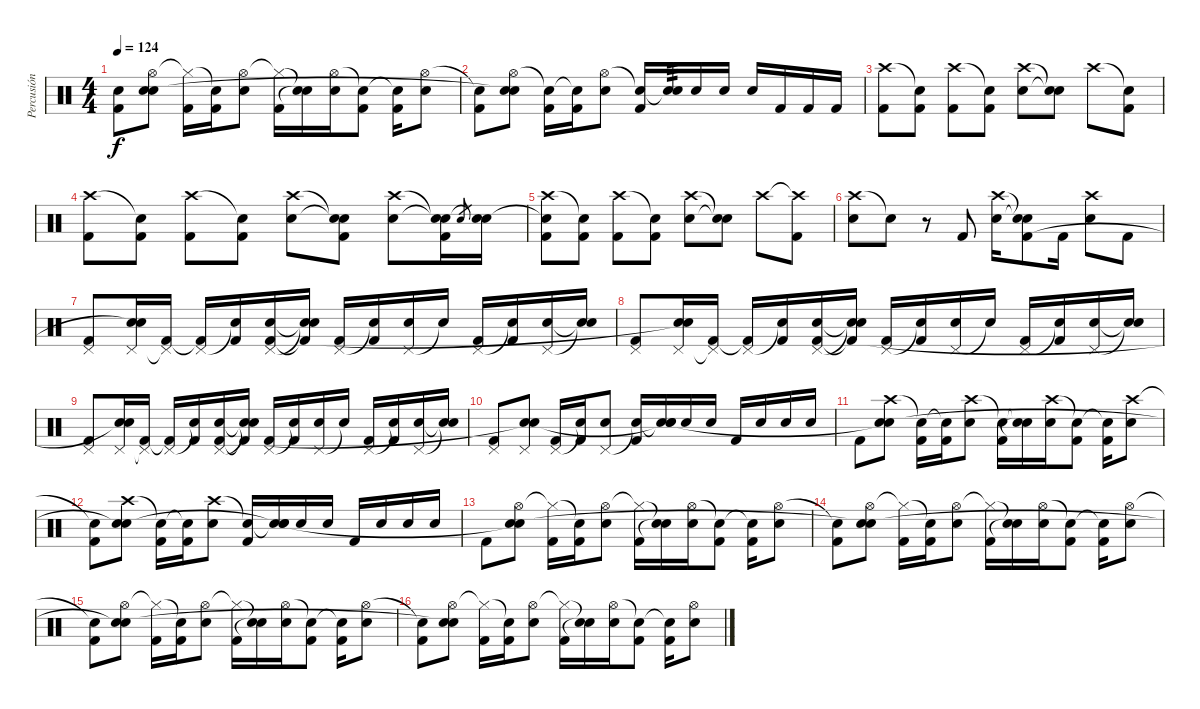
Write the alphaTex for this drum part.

\track ("Percusión" "Percusión") {instrument percussion}
\staff {score}
\articulation defaults
\ts (4 4)
\tempo 124
\clef neutral
\ks c
("Snare (hit)"{t} "Kick (hit) 2").8{dy f} ("Hi-Hat (open)" "Snare (hit) 2" "Snare (hit)"{t}).8 ("Hi-Hat (closed)"{t} "Kick (hit) 2").16 ("Snare (hit)"{t} "Kick (hit) 2").16 ("Hi-Hat (open)" "Snare (hit) 2").8 ("Hi-Hat (closed)"{t} "Kick (hit) 2").16 ("Snare (hit)"{t} "Snare (hit)"{t}).16 ("Hi-Hat (open)" "Snare (hit) 2").16 ("Snare (hit)"{t} "Kick (hit) 2").8 ("Snare (hit)"{t} "Kick (hit) 2").16 ("Hi-Hat (open)" "Snare (hit) 2").8 |
("Snare (hit)"{t} "Kick (hit) 2").8 ("Hi-Hat (open)" "Snare (hit) 2" "Snare (hit)"{t}).8 ("Snare (hit)"{t} "Kick (hit) 2").16 ("Snare (hit)"{t} "Kick (hit) 2").16 ("Hi-Hat (open)" "Snare (hit) 2").8 ("Snare (hit)"{t} "Kick (hit) 2").16 ("Snare (hit)"{t} "Snare (hit) 2").16{tp 3} "Snare (hit) 2".16 "Snare (hit) 2".16 "Snare (hit) 2".16 "Kick (hit) 2".16 "Kick (hit) 2".16 "Kick (hit) 2".16 |
("Crash high (hit)" "Kick (hit) 2").8 ("Snare (hit)"{t} "Kick (hit) 2").8 ("Crash high (hit)" "Kick (hit) 2").8 ("Snare (hit)"{t} "Kick (hit) 2").8 ("Crash high (hit)" "Snare (hit) 2").8 ("Snare (hit)"{t} "Snare (hit)"{t}).8 "Crash high (hit)".8 ("Snare (hit)"{t} "Kick (hit) 2").8 |
("Crash high (hit)" "Kick (hit) 2").8 ("Snare (hit)"{t} "Kick (hit) 2").8 ("Crash high (hit)" "Kick (hit) 2").8 ("Snare (hit)"{t} "Kick (hit) 2").8 ("Crash high (hit)" "Snare (hit) 2").8 ("Snare (hit)"{t} "Snare (hit)"{t} "Kick (hit) 2").8 ("Crash high (hit)" "Snare (hit) 2").8 ("Snare (hit)"{t} "Snare (hit) 2"{t} "Kick (hit) 2").16 "Snare (hit) 2".8{gr} ("Snare (hit) 2" "Snare (hit)"{t}).16 |
("Crash high (hit)" "Snare (hit) 2"{t} "Kick (hit) 2").8 ("Snare (hit)"{t} "Kick (hit) 2").8 ("Crash high (hit)" "Kick (hit) 2").8 ("Snare (hit)"{t} "Kick (hit) 2").8 ("Crash high (hit)" "Snare (hit) 2").8 ("Snare (hit)"{t} "Snare (hit)"{t}).8 "Crash high (hit)".8 ("Crash high (hit)"{t} "Kick (hit) 2").8 |
("Crash high (hit)" "Snare (hit) 2").8 "Snare (hit)"{t}.8 r.8 "Kick (hit) 2".8 ("Crash high (hit)" "Snare (hit) 2").16 ("Snare (hit)"{t} "Snare (hit)"{t} "Kick (hit) 2").8 "Kick (hit) 2".16 ("Crash high (hit)" "Snare (hit) 2").8 "Kick (hit) 2".8 |
("Pedal Hi-Hat (hit)" "Kick (hit) 2").8 ("Pedal Hi-Hat (hit)" "Snare (hit) 2" "Snare (hit)"{t}).16 ("Pedal Hi-Hat (hit)"{t} "Kick (hit) 2").16 ("Pedal Hi-Hat (hit)" "Kick (hit) 2"{t}).16 ("Snare (hit)"{t} "Kick (hit) 2").16 ("Pedal Hi-Hat (hit)" "Snare (hit) 2" "Kick (hit) 2").16 ("Snare (hit)"{t} "Snare (hit)"{t} "Kick (hit) 2"{t}).16 ("Pedal Hi-Hat (hit)" "Kick (hit) 2").16 ("Snare (hit)"{t} "Kick (hit) 2").16 ("Pedal Hi-Hat (hit)" "Snare (hit) 2").16 "Snare (hit)"{t}.16 ("Pedal Hi-Hat (hit)" "Kick (hit) 2").16 ("Snare (hit)"{t} "Kick (hit) 2").16 ("Pedal Hi-Hat (hit)" "Snare (hit) 2").16 ("Snare (hit)"{t} "Snare (hit)"{t}).16 |
("Pedal Hi-Hat (hit)" "Kick (hit) 2").8 ("Pedal Hi-Hat (hit)" "Snare (hit) 2" "Snare (hit)"{t}).16 ("Pedal Hi-Hat (hit)"{t} "Kick (hit) 2").16 ("Pedal Hi-Hat (hit)" "Kick (hit) 2"{t}).16 ("Snare (hit)"{t} "Kick (hit) 2").16 ("Pedal Hi-Hat (hit)" "Snare (hit) 2" "Kick (hit) 2").16 ("Snare (hit)"{t} "Snare (hit)"{t} "Kick (hit) 2"{t}).16 ("Pedal Hi-Hat (hit)" "Kick (hit) 2").16 ("Snare (hit)"{t} "Kick (hit) 2").16 ("Pedal Hi-Hat (hit)" "Snare (hit) 2").16 "Snare (hit)"{t}.16 ("Pedal Hi-Hat (hit)" "Kick (hit) 2").16 ("Snare (hit)"{t} "Kick (hit) 2").16 ("Pedal Hi-Hat (hit)" "Snare (hit) 2").16 ("Snare (hit)"{t} "Snare (hit)"{t}).16 |
("Pedal Hi-Hat (hit)" "Kick (hit) 2").8 ("Pedal Hi-Hat (hit)" "Snare (hit) 2" "Snare (hit)"{t}).16 ("Pedal Hi-Hat (hit)"{t} "Kick (hit) 2").16 ("Pedal Hi-Hat (hit)" "Kick (hit) 2"{t}).16 ("Snare (hit)"{t} "Kick (hit) 2").16 ("Pedal Hi-Hat (hit)" "Snare (hit) 2" "Kick (hit) 2").16 ("Snare (hit)"{t} "Snare (hit)"{t} "Kick (hit) 2"{t}).16 ("Pedal Hi-Hat (hit)" "Kick (hit) 2").16 ("Snare (hit)"{t} "Kick (hit) 2").16 ("Pedal Hi-Hat (hit)" "Snare (hit) 2").16 "Snare (hit)"{t}.16 ("Pedal Hi-Hat (hit)" "Kick (hit) 2").16 ("Snare (hit)"{t} "Kick (hit) 2").16 ("Pedal Hi-Hat (hit)" "Snare (hit) 2").16 ("Snare (hit)"{t} "Snare (hit)"{t}).16 |
("Pedal Hi-Hat (hit)" "Kick (hit) 2").8 ("Pedal Hi-Hat (hit)" "Snare (hit) 2" "Snare (hit)"{t}).8 ("Pedal Hi-Hat (hit)" "Kick (hit) 2").16 ("Snare (hit)"{t} "Kick (hit) 2").16 ("Pedal Hi-Hat (hit)" "Snare (hit) 2").8 ("Snare (hit)"{t} "Kick (hit) 2").16 ("Snare (hit)"{t} "Snare (hit) 2" "Snare (hit)"{t}).16 "Snare (hit) 2".16 "Snare (hit) 2".16 "Kick (hit) 2".16 "Snare (hit) 2".16 "Snare (hit) 2".16 "Snare (hit) 2".16 |
"Kick (hit) 2".8 ("Crash high (hit)" "Snare (hit) 2" "Snare (hit)"{t}).8 ("Snare (hit)"{t} "Kick (hit) 2").16 ("Snare (hit)"{t} "Kick (hit) 2").16 ("Crash high (hit)" "Snare (hit) 2").8 ("Snare (hit)"{t} "Kick (hit) 2").16 ("Snare (hit)"{t} "Snare (hit)"{t}).16 ("Crash high (hit)" "Snare (hit) 2").16 ("Snare (hit)"{t} "Kick (hit) 2").8 ("Snare (hit)"{t} "Kick (hit) 2").16 ("Crash high (hit)" "Snare (hit) 2").8 |
("Snare (hit)"{t} "Kick (hit) 2").8 ("Crash high (hit)" "Snare (hit) 2" "Snare (hit)"{t}).8 ("Snare (hit)"{t} "Kick (hit) 2").16 ("Snare (hit)"{t} "Kick (hit) 2").16 ("Crash high (hit)" "Snare (hit) 2").8 ("Snare (hit)"{t} "Kick (hit) 2").16 ("Snare (hit)"{t} "Snare (hit) 2" "Snare (hit)"{t}).16 "Snare (hit) 2".16 "Snare (hit) 2".16 "Kick (hit) 2".16 "Snare (hit) 2".16 "Snare (hit) 2".16 "Snare (hit) 2".16 |
"Kick (hit) 2".8 ("Hi-Hat (open)" "Snare (hit) 2" "Snare (hit)"{t}).8 ("Hi-Hat (closed)"{t} "Kick (hit) 2").16 ("Snare (hit)"{t} "Kick (hit) 2").16 ("Hi-Hat (open)" "Snare (hit) 2").8 ("Hi-Hat (closed)"{t} "Kick (hit) 2").16 ("Snare (hit)"{t} "Snare (hit)"{t}).16 ("Hi-Hat (open)" "Snare (hit) 2").16 ("Snare (hit)"{t} "Kick (hit) 2").8 ("Snare (hit)"{t} "Kick (hit) 2").16 ("Hi-Hat (open)" "Snare (hit) 2").8 |
("Snare (hit)"{t} "Kick (hit) 2").8 ("Hi-Hat (open)" "Snare (hit) 2" "Snare (hit)"{t}).8 ("Hi-Hat (closed)"{t} "Kick (hit) 2").16 ("Snare (hit)"{t} "Kick (hit) 2").16 ("Hi-Hat (open)" "Snare (hit) 2").8 ("Hi-Hat (closed)"{t} "Kick (hit) 2").16 ("Snare (hit)"{t} "Snare (hit)"{t}).16 ("Hi-Hat (open)" "Snare (hit) 2").16 ("Snare (hit)"{t} "Kick (hit) 2").8 ("Snare (hit)"{t} "Kick (hit) 2").16 ("Hi-Hat (open)" "Snare (hit) 2").8 |
("Snare (hit)"{t} "Kick (hit) 2").8 ("Hi-Hat (open)" "Snare (hit) 2" "Snare (hit)"{t}).8 ("Hi-Hat (closed)"{t} "Kick (hit) 2").16 ("Snare (hit)"{t} "Kick (hit) 2").16 ("Hi-Hat (open)" "Snare (hit) 2").8 ("Hi-Hat (closed)"{t} "Kick (hit) 2").16 ("Snare (hit)"{t} "Snare (hit)"{t}).16 ("Hi-Hat (open)" "Snare (hit) 2").16 ("Snare (hit)"{t} "Kick (hit) 2").8 ("Snare (hit)"{t} "Kick (hit) 2").16 ("Hi-Hat (open)" "Snare (hit) 2").8 |
("Snare (hit)"{t} "Kick (hit) 2").8 ("Hi-Hat (open)" "Snare (hit) 2" "Snare (hit)"{t}).8 ("Hi-Hat (closed)"{t} "Kick (hit) 2").16 ("Snare (hit)"{t} "Kick (hit) 2").16 ("Hi-Hat (open)" "Snare (hit) 2").8 ("Hi-Hat (closed)"{t} "Kick (hit) 2").16 ("Snare (hit)"{t} "Snare (hit)"{t}).16 ("Hi-Hat (open)" "Snare (hit) 2").16 ("Snare (hit)"{t} "Kick (hit) 2").8 ("Snare (hit)"{t} "Kick (hit) 2").16 ("Hi-Hat (open)" "Snare (hit) 2").8
